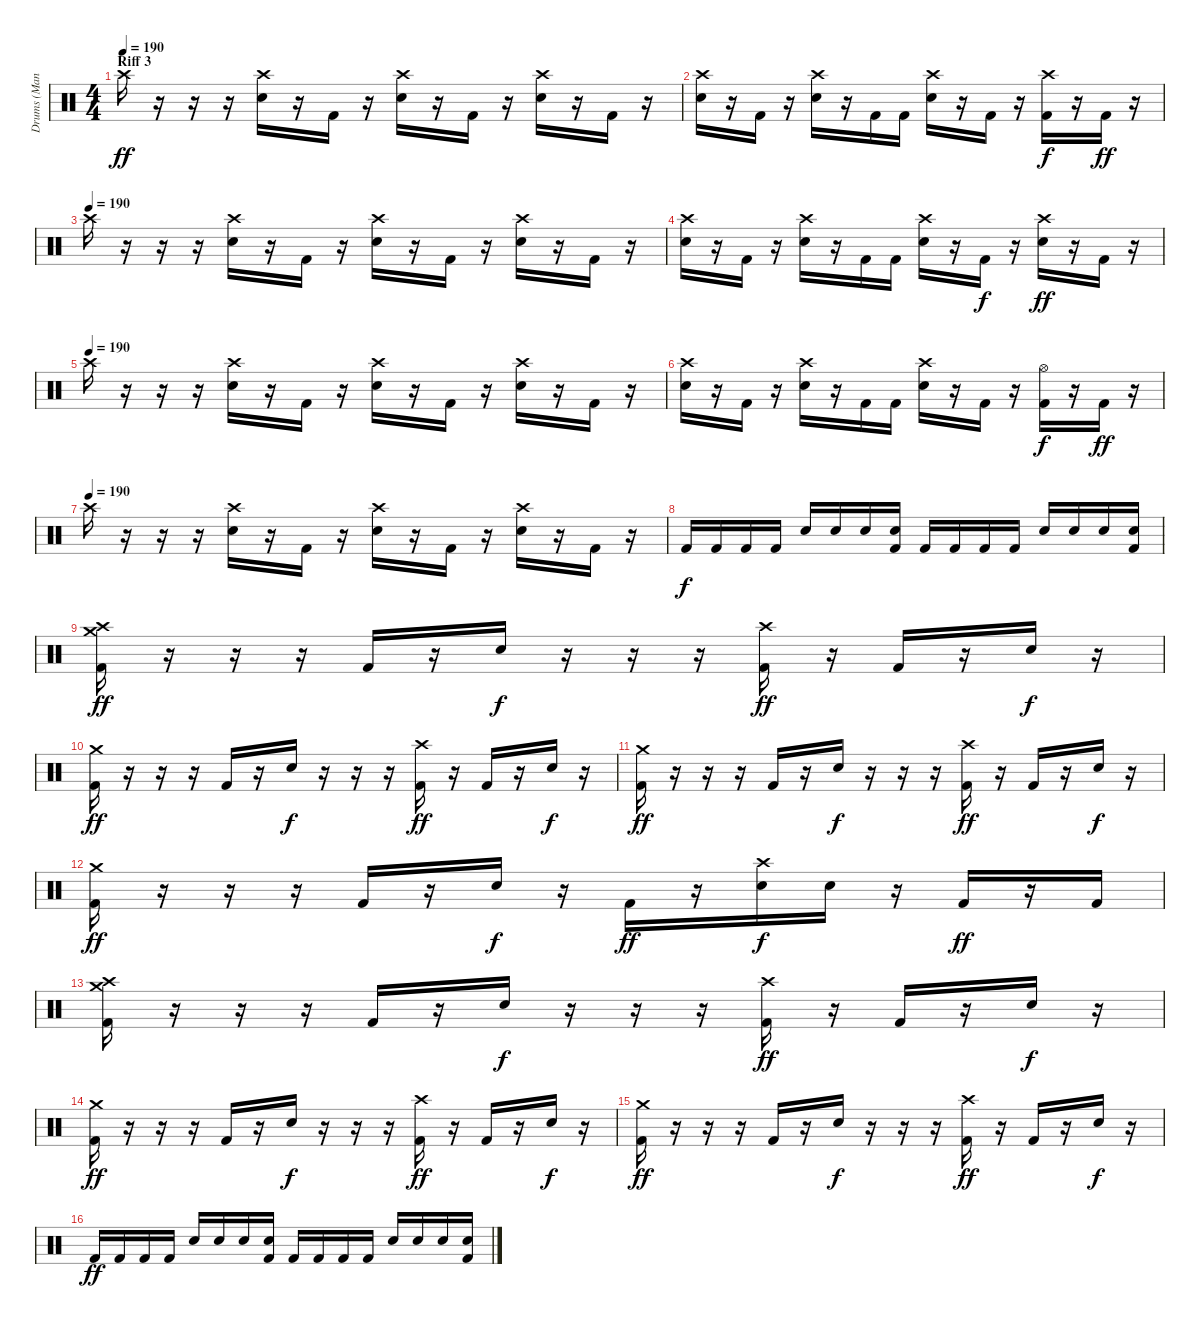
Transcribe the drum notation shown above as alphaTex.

\track ("Drums (Mancino)" "Drums (Man") {instrument percussion}
\staff {score}
\articulation defaults
\ts (4 4)
\section ("" "Riff 3")
\tempo 190
\clef neutral
\ks c "Crash high (hit)".16{dy ff}
r.16 r.16 r.16 ("Crash high (hit)" "Electric Snare (hit)").16 r.16 "Kick (hit) 2".16 r.16 ("Crash high (hit)" "Electric Snare (hit)").16 r.16 "Kick (hit) 2".16 r.16 ("Crash high (hit)" "Electric Snare (hit)").16 r.16 "Kick (hit) 2".16 r.16 |
("Crash high (hit)" "Electric Snare (hit)").16 r.16 "Kick (hit) 2".16 r.16 ("Crash high (hit)" "Electric Snare (hit)").16 r.16 "Kick (hit) 2".16 "Kick (hit) 2".16 ("Crash high (hit)" "Electric Snare (hit)").16 r.16 "Kick (hit) 2".16 r.16 ("Crash high (hit)" "Kick (hit) 2").16{dy f} r.16 "Kick (hit) 2".16{dy ff} r.16 |
\tempo (190)
"Crash high (hit)".16 r.16 r.16 r.16 ("Crash high (hit)" "Electric Snare (hit)").16 r.16 "Kick (hit) 2".16 r.16 ("Crash high (hit)" "Electric Snare (hit)").16 r.16 "Kick (hit) 2".16 r.16 ("Crash high (hit)" "Electric Snare (hit)").16 r.16 "Kick (hit) 2".16 r.16 |
("Crash high (hit)" "Electric Snare (hit)").16 r.16 "Kick (hit) 2".16 r.16 ("Crash high (hit)" "Electric Snare (hit)").16 r.16 "Kick (hit) 2".16 "Kick (hit) 2".16 ("Crash high (hit)" "Electric Snare (hit)").16 r.16 "Kick (hit) 2".16{dy f} r.16 ("Crash high (hit)" "Electric Snare (hit)").16{dy ff} r.16 "Kick (hit) 2".16 r.16 |
\tempo (190)
"Crash high (hit)".16 r.16 r.16 r.16 ("Crash high (hit)" "Electric Snare (hit)").16 r.16 "Kick (hit) 2".16 r.16 ("Crash high (hit)" "Electric Snare (hit)").16 r.16 "Kick (hit) 2".16 r.16 ("Crash high (hit)" "Electric Snare (hit)").16 r.16 "Kick (hit) 2".16 r.16 |
("Crash high (hit)" "Electric Snare (hit)").16 r.16 "Kick (hit) 2".16 r.16 ("Crash high (hit)" "Electric Snare (hit)").16 r.16 "Kick (hit) 2".16 "Kick (hit) 2".16 ("Crash high (hit)" "Electric Snare (hit)").16 r.16 "Kick (hit) 2".16 r.16 ("Hi-Hat (open)" "Kick (hit) 2").16{dy f} r.16 "Kick (hit) 2".16{dy ff} r.16 |
\tempo (190)
"Crash high (hit)".16 r.16 r.16 r.16 ("Crash high (hit)" "Electric Snare (hit)").16 r.16 "Kick (hit) 2".16 r.16 ("Crash high (hit)" "Electric Snare (hit)").16 r.16 "Kick (hit) 2".16 r.16 ("Crash high (hit)" "Electric Snare (hit)").16 r.16 "Kick (hit) 2".16 r.16 |
"Kick (hit) 2".16{dy f} "Kick (hit) 2".16 "Kick (hit) 2".16 "Kick (hit) 2".16 "Electric Snare (hit)".16 "Electric Snare (hit)".16 "Electric Snare (hit)".16 ("Electric Snare (hit)" "Kick (hit) 2").16 "Kick (hit) 2".16 "Kick (hit) 2".16 "Kick (hit) 2".16 "Kick (hit) 2".16 "Electric Snare (hit)".16 "Electric Snare (hit)".16 "Electric Snare (hit)".16 ("Electric Snare (hit)" "Kick (hit) 2").16 |
("Crash medium (hit)" "Crash high (hit)" "Kick (hit) 2").16{dy ff} r.16 r.16 r.16 "Kick (hit) 2".16 r.16 "Electric Snare (hit)".16{dy f} r.16 r.16 r.16 ("Crash high (hit)" "Kick (hit) 2").16{dy ff} r.16 "Kick (hit) 2".16 r.16 "Electric Snare (hit)".16{dy f} r.16 |
("Crash medium (hit)" "Kick (hit) 2").16{dy ff} r.16 r.16 r.16 "Kick (hit) 2".16 r.16 "Electric Snare (hit)".16{dy f} r.16 r.16 r.16 ("Crash high (hit)" "Kick (hit) 2").16{dy ff} r.16 "Kick (hit) 2".16 r.16 "Electric Snare (hit)".16{dy f} r.16 |
("Crash medium (hit)" "Kick (hit) 2").16{dy ff} r.16 r.16 r.16 "Kick (hit) 2".16 r.16 "Electric Snare (hit)".16{dy f} r.16 r.16 r.16 ("Crash high (hit)" "Kick (hit) 2").16{dy ff} r.16 "Kick (hit) 2".16 r.16 "Electric Snare (hit)".16{dy f} r.16 |
("Crash medium (hit)" "Kick (hit) 2").16{dy ff} r.16 r.16 r.16 "Kick (hit) 2".16 r.16 "Electric Snare (hit)".16{dy f} r.16 "Kick (hit) 2".16{dy ff} r.16 ("Crash high (hit)" "Electric Snare (hit)").16{dy f} "Electric Snare (hit)".16 r.16 "Kick (hit) 2".16{dy ff} r.16 "Kick (hit) 2".16 |
("Crash medium (hit)" "Crash high (hit)" "Kick (hit) 2").16 r.16 r.16 r.16 "Kick (hit) 2".16 r.16 "Electric Snare (hit)".16{dy f} r.16 r.16 r.16 ("Crash high (hit)" "Kick (hit) 2").16{dy ff} r.16 "Kick (hit) 2".16 r.16 "Electric Snare (hit)".16{dy f} r.16 |
("Crash medium (hit)" "Kick (hit) 2").16{dy ff} r.16 r.16 r.16 "Kick (hit) 2".16 r.16 "Electric Snare (hit)".16{dy f} r.16 r.16 r.16 ("Crash high (hit)" "Kick (hit) 2").16{dy ff} r.16 "Kick (hit) 2".16 r.16 "Electric Snare (hit)".16{dy f} r.16 |
("Crash medium (hit)" "Kick (hit) 2").16{dy ff} r.16 r.16 r.16 "Kick (hit) 2".16 r.16 "Electric Snare (hit)".16{dy f} r.16 r.16 r.16 ("Crash high (hit)" "Kick (hit) 2").16{dy ff} r.16 "Kick (hit) 2".16 r.16 "Electric Snare (hit)".16{dy f} r.16 |
"Kick (hit) 2".16{dy ff} "Kick (hit) 2".16 "Kick (hit) 2".16 "Kick (hit) 2".16 "Electric Snare (hit)".16 "Electric Snare (hit)".16 "Electric Snare (hit)".16 ("Electric Snare (hit)" "Kick (hit) 2").16 "Kick (hit) 2".16 "Kick (hit) 2".16 "Kick (hit) 2".16 "Kick (hit) 2".16 "Electric Snare (hit)".16 "Electric Snare (hit)".16 "Electric Snare (hit)".16 ("Electric Snare (hit)" "Kick (hit) 2").16
